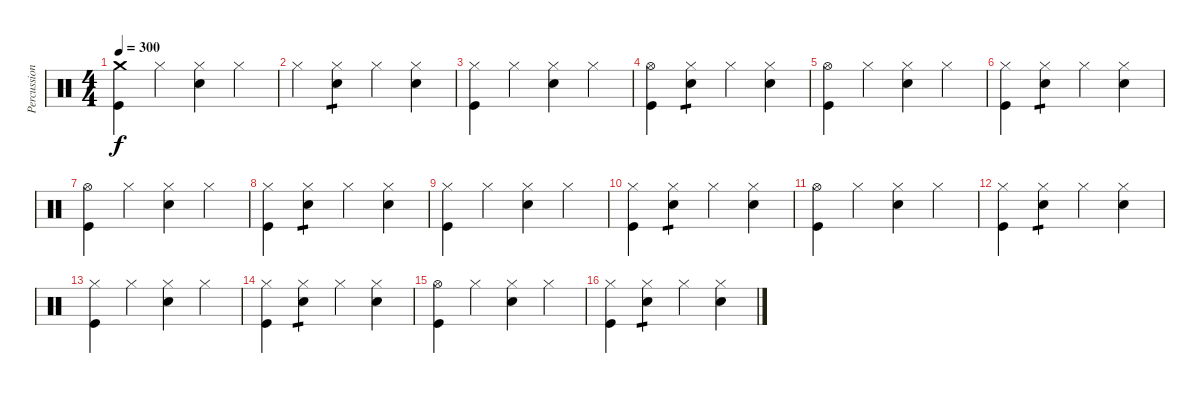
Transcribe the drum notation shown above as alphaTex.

\track ("Percussion" "Percussion") {instrument percussion}
\staff {score}
\articulation defaults
\ts (4 4)
\tempo 300
\clef neutral
\ks c
("Kick (hit)" "Crash medium (hit)").4{dy f} "Hi-Hat (closed)".4 ("Electric Snare (hit)" "Hi-Hat (closed)").4 "Hi-Hat (closed)".4 |
"Hi-Hat (closed)".4 ("Electric Snare (hit)" "Hi-Hat (closed)").4{tp 1} "Hi-Hat (closed)".4 ("Electric Snare (hit)" "Hi-Hat (closed)").4 |
("Kick (hit)" "Hi-Hat (closed)").4 "Hi-Hat (closed)".4 ("Electric Snare (hit)" "Hi-Hat (closed)").4 "Hi-Hat (closed)".4 |
("Kick (hit)" "Hi-Hat (open)").4 ("Electric Snare (hit)" "Hi-Hat (closed)").4{tp 1} "Hi-Hat (closed)".4 ("Electric Snare (hit)" "Hi-Hat (closed)").4 |
("Kick (hit)" "Hi-Hat (open)").4 "Hi-Hat (closed)".4 ("Electric Snare (hit)" "Hi-Hat (closed)").4 "Hi-Hat (closed)".4 |
("Kick (hit)" "Hi-Hat (closed)").4 ("Electric Snare (hit)" "Hi-Hat (closed)").4{tp 1} "Hi-Hat (closed)".4 ("Electric Snare (hit)" "Hi-Hat (closed)").4 |
("Kick (hit)" "Hi-Hat (open)").4 "Hi-Hat (closed)".4 ("Electric Snare (hit)" "Hi-Hat (closed)").4 "Hi-Hat (closed)".4 |
("Kick (hit)" "Hi-Hat (closed)").4 ("Electric Snare (hit)" "Hi-Hat (closed)").4{tp 1} "Hi-Hat (closed)".4 ("Electric Snare (hit)" "Hi-Hat (closed)").4 |
("Kick (hit)" "Hi-Hat (closed)").4 "Hi-Hat (closed)".4 ("Electric Snare (hit)" "Hi-Hat (closed)").4 "Hi-Hat (closed)".4 |
("Kick (hit)" "Hi-Hat (closed)").4 ("Electric Snare (hit)" "Hi-Hat (closed)").4{tp 1} "Hi-Hat (closed)".4 ("Electric Snare (hit)" "Hi-Hat (closed)").4 |
("Kick (hit)" "Hi-Hat (open)").4 "Hi-Hat (closed)".4 ("Electric Snare (hit)" "Hi-Hat (closed)").4 "Hi-Hat (closed)".4 |
("Kick (hit)" "Hi-Hat (closed)").4 ("Electric Snare (hit)" "Hi-Hat (closed)").4{tp 1} "Hi-Hat (closed)".4 ("Electric Snare (hit)" "Hi-Hat (closed)").4 |
("Kick (hit)" "Hi-Hat (closed)").4 "Hi-Hat (closed)".4 ("Electric Snare (hit)" "Hi-Hat (closed)").4 "Hi-Hat (closed)".4 |
("Kick (hit)" "Hi-Hat (closed)").4 ("Electric Snare (hit)" "Hi-Hat (closed)").4{tp 1} "Hi-Hat (closed)".4 ("Electric Snare (hit)" "Hi-Hat (closed)").4 |
("Kick (hit)" "Hi-Hat (open)").4 "Hi-Hat (closed)".4 ("Electric Snare (hit)" "Hi-Hat (closed)").4 "Hi-Hat (closed)".4 |
("Kick (hit)" "Hi-Hat (closed)").4 ("Electric Snare (hit)" "Hi-Hat (closed)").4{tp 1} "Hi-Hat (closed)".4 ("Electric Snare (hit)" "Hi-Hat (closed)").4
